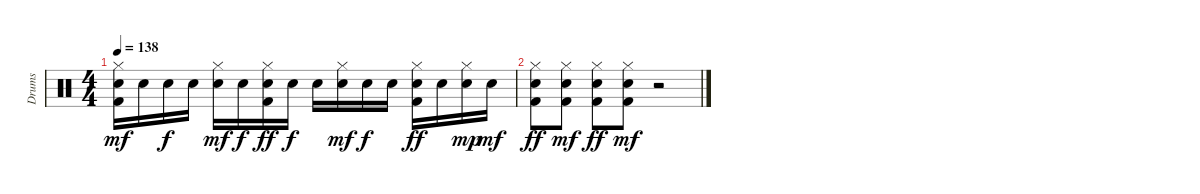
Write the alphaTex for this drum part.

\track ("Drums" "Drums") {instrument percussion}
\staff {score}
\articulation defaults
\ts (4 4)
\tempo 138
\clef neutral
\ks c
("Kick (hit) 2" "Electric Snare (hit)" "Hi-Hat (closed)").16{dy mf} "Electric Snare (hit)".16 "Electric Snare (hit)".16{dy f} "Electric Snare (hit)".16 ("Electric Snare (hit)" "Hi-Hat (closed)").16{dy mf} "Electric Snare (hit)".16{dy f} ("Kick (hit) 2" "Electric Snare (hit)" "Hi-Hat (closed)").16{dy ff} "Electric Snare (hit)".16{dy f} "Electric Snare (hit)".16 ("Electric Snare (hit)" "Hi-Hat (closed)").16{dy mf} "Electric Snare (hit)".16{dy f} "Electric Snare (hit)".16 ("Kick (hit) 2" "Electric Snare (hit)" "Hi-Hat (closed)").16{dy ff} "Electric Snare (hit)".16 ("Electric Snare (hit)" "Hi-Hat (closed)").16{dy mp} "Electric Snare (hit)".16{dy mf} |
("Kick (hit) 2" "Electric Snare (hit)" "Hi-Hat (closed)").8{dy ff} ("Kick (hit) 2" "Electric Snare (hit)" "Hi-Hat (closed)").8{dy mf} ("Kick (hit) 2" "Electric Snare (hit)" "Hi-Hat (closed)").8{dy ff} ("Kick (hit) 2" "Electric Snare (hit)" "Hi-Hat (closed)").8{dy mf} r.2
